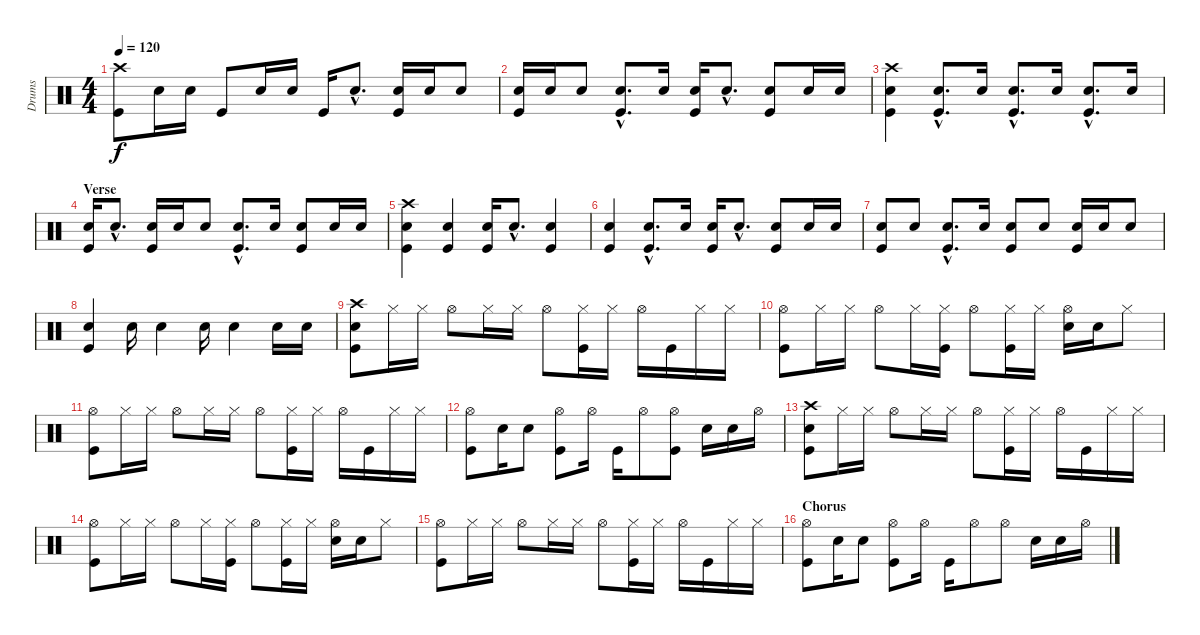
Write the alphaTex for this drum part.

\track ("Drums " "Drums ") {instrument percussion}
\staff {score}
\articulation defaults
\ts (4 4)
\tempo 120
\clef neutral
\ks c
("Crash high (hit)" "Kick (hit)").8{dy f} "Snare (hit) 2".16 "Snare (hit) 2".16 "Kick (hit)".8 "Snare (hit) 2".16 "Snare (hit) 2".16 "Kick (hit)".16 "Snare (hit) 2"{hac}.8{d} ("Snare (hit) 2" "Kick (hit)").16 "Snare (hit) 2".16 "Snare (hit) 2".8 |
("Snare (hit) 2" "Kick (hit)").16 "Snare (hit) 2".16 "Snare (hit) 2".8 ("Snare (hit) 2"{hac} "Kick (hit)"{hac}).8{d} "Snare (hit) 2".16 ("Snare (hit) 2" "Kick (hit)").16 "Snare (hit) 2"{hac}.8{d} ("Snare (hit) 2" "Kick (hit)").8 "Snare (hit) 2".16 "Snare (hit) 2".16 |
("Crash high (hit)" "Snare (hit) 2" "Kick (hit)").4 ("Snare (hit) 2"{hac} "Kick (hit)"{hac}).8{d} "Snare (hit) 2".16 ("Snare (hit) 2"{hac} "Kick (hit)"{hac}).8{d} "Snare (hit) 2".16 ("Snare (hit) 2"{hac} "Kick (hit)"{hac}).8{d} "Snare (hit) 2".16 |
\section ("" "Verse")
("Snare (hit) 2" "Kick (hit)").16 "Snare (hit) 2"{hac}.8{d} ("Snare (hit) 2" "Kick (hit)").16 "Snare (hit) 2".16 "Snare (hit) 2".8 ("Snare (hit) 2"{hac} "Kick (hit)"{hac}).8{d} "Snare (hit) 2".16 ("Snare (hit) 2" "Kick (hit)").8 "Snare (hit) 2".16 "Snare (hit) 2".16 |
("Crash high (hit)" "Snare (hit) 2" "Kick (hit)").4 ("Snare (hit) 2" "Kick (hit)").4 ("Snare (hit) 2" "Kick (hit)").16 "Snare (hit) 2"{hac}.8{d} ("Snare (hit) 2" "Kick (hit)").4 |
("Snare (hit) 2" "Kick (hit)").4 ("Snare (hit) 2"{hac} "Kick (hit)"{hac}).8{d} "Snare (hit) 2".16 ("Snare (hit) 2" "Kick (hit)").16 "Snare (hit) 2"{hac}.8{d} ("Snare (hit) 2" "Kick (hit)").8 "Snare (hit) 2".16 "Snare (hit) 2".16 |
("Snare (hit) 2" "Kick (hit)").8 "Snare (hit) 2".8 ("Snare (hit) 2"{hac} "Kick (hit)"{hac}).8{d} "Snare (hit) 2".16 ("Snare (hit) 2" "Kick (hit)").8 "Snare (hit) 2".8 ("Snare (hit) 2" "Kick (hit)").16 "Snare (hit) 2".16 "Snare (hit) 2".8 |
("Snare (hit) 2" "Kick (hit)").4 "Snare (hit) 2".16 "Snare (hit) 2".4 "Snare (hit) 2".16 "Snare (hit) 2".4 "Snare (hit) 2".16 "Snare (hit) 2".16 |
("Crash high (hit)" "Snare (hit) 2" "Kick (hit)").8 "Hi-Hat (closed)".16 "Hi-Hat (closed)".16 "Hi-Hat (open)".8 "Hi-Hat (closed)".16 "Hi-Hat (closed)".16 "Hi-Hat (open)".8 ("Hi-Hat (closed)" "Kick (hit)").16 "Hi-Hat (closed)".16 "Hi-Hat (open)".16 "Kick (hit)".16 "Hi-Hat (closed)".16 "Hi-Hat (closed)".16 |
("Hi-Hat (open)" "Kick (hit)").8 "Hi-Hat (closed)".16 "Hi-Hat (closed)".16 "Hi-Hat (open)".8 "Hi-Hat (closed)".16 ("Hi-Hat (closed)" "Kick (hit)").16 "Hi-Hat (open)".8 ("Hi-Hat (closed)" "Kick (hit)").16 "Hi-Hat (closed)".16 ("Hi-Hat (open)" "Snare (hit) 2").16 "Snare (hit) 2".16 "Hi-Hat (closed)".8 |
("Hi-Hat (open)" "Kick (hit)").8 "Hi-Hat (closed)".16 "Hi-Hat (closed)".16 "Hi-Hat (open)".8 "Hi-Hat (closed)".16 "Hi-Hat (closed)".16 "Hi-Hat (open)".8 ("Hi-Hat (closed)" "Kick (hit)").16 "Hi-Hat (closed)".16 "Hi-Hat (open)".16 "Kick (hit)".16 "Hi-Hat (closed)".16 "Hi-Hat (closed)".16 |
("Hi-Hat (open)" "Kick (hit)").8 "Snare (hit) 2".16 "Snare (hit) 2".8 ("Hi-Hat (open)" "Kick (hit)").8 "Hi-Hat (open)".16 "Kick (hit)".16 "Hi-Hat (open)".8 ("Hi-Hat (open)" "Kick (hit)").8 "Snare (hit) 2".16 "Snare (hit) 2".16 "Hi-Hat (open)".16 |
("Crash high (hit)" "Snare (hit) 2" "Kick (hit)").8 "Hi-Hat (closed)".16 "Hi-Hat (closed)".16 "Hi-Hat (open)".8 "Hi-Hat (closed)".16 "Hi-Hat (closed)".16 "Hi-Hat (open)".8 ("Hi-Hat (closed)" "Kick (hit)").16 "Hi-Hat (closed)".16 "Hi-Hat (open)".16 "Kick (hit)".16 "Hi-Hat (closed)".16 "Hi-Hat (closed)".16 |
("Hi-Hat (open)" "Kick (hit)").8 "Hi-Hat (closed)".16 "Hi-Hat (closed)".16 "Hi-Hat (open)".8 "Hi-Hat (closed)".16 ("Hi-Hat (closed)" "Kick (hit)").16 "Hi-Hat (open)".8 ("Hi-Hat (closed)" "Kick (hit)").16 "Hi-Hat (closed)".16 ("Hi-Hat (open)" "Snare (hit) 2").16 "Snare (hit) 2".16 "Hi-Hat (closed)".8 |
("Hi-Hat (open)" "Kick (hit)").8 "Hi-Hat (closed)".16 "Hi-Hat (closed)".16 "Hi-Hat (open)".8 "Hi-Hat (closed)".16 "Hi-Hat (closed)".16 "Hi-Hat (open)".8 ("Hi-Hat (closed)" "Kick (hit)").16 "Hi-Hat (closed)".16 "Hi-Hat (open)".16 "Kick (hit)".16 "Hi-Hat (closed)".16 "Hi-Hat (closed)".16 |
\section ("" "Chorus")
("Hi-Hat (open)" "Kick (hit)").8 "Snare (hit) 2".16 "Snare (hit) 2".8 ("Hi-Hat (open)" "Kick (hit)").8 "Hi-Hat (open)".16 "Kick (hit)".16 "Hi-Hat (open)".8 "Hi-Hat (open)".8 "Snare (hit) 2".16 "Snare (hit) 2".16 "Hi-Hat (open)".16
